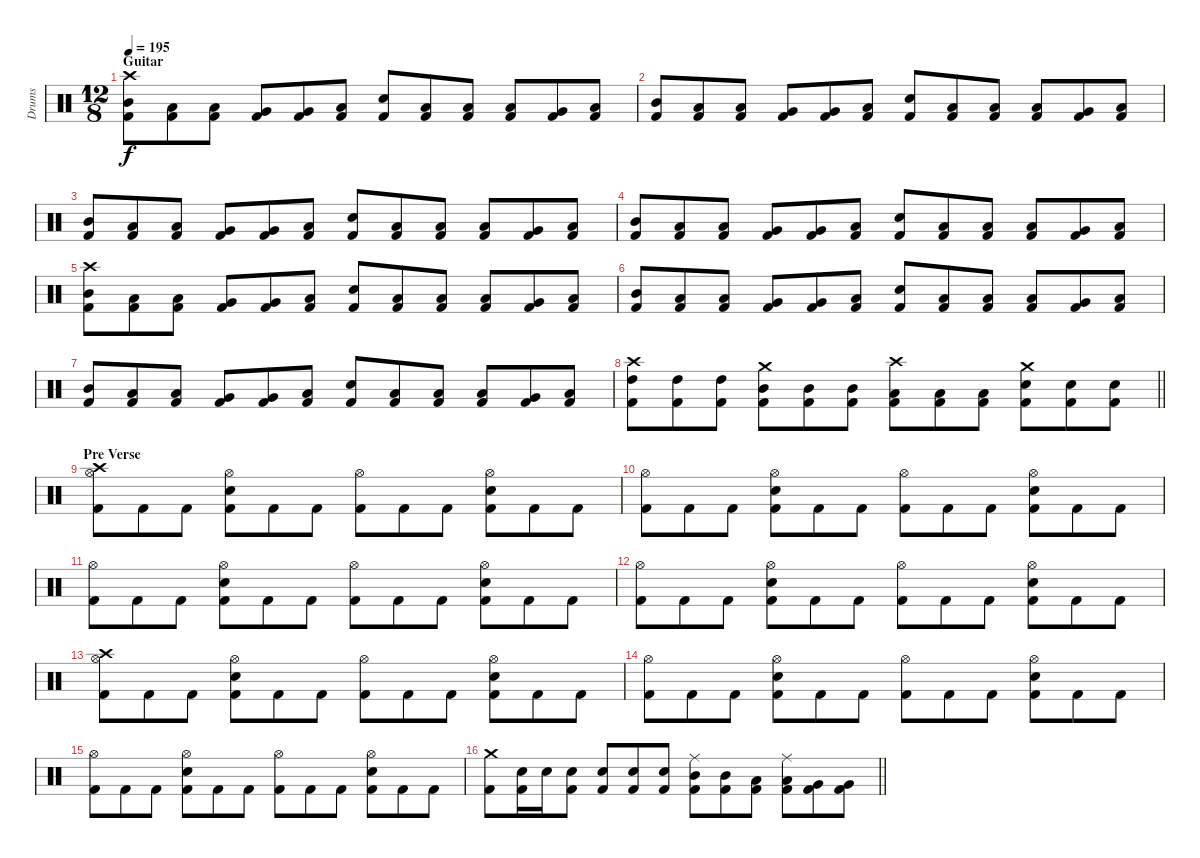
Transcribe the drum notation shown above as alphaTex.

\track ("Drums" "Drums") {instrument percussion}
\staff {score}
\articulation defaults
\ts (12 8)
\section ("" "Guitar")
\tempo 195
\clef neutral
\ks c
("Crash high (hit)" "Mid Tom (hit)" "Kick (hit) 2").8{dy f} ("Low Tom (hit)" "Kick (hit) 2").8 ("Low Tom (hit)" "Kick (hit) 2").8 ("Very Low Tom (hit)" "Kick (hit) 2").8 ("Very Low Tom (hit)" "Kick (hit) 2").8 ("Low Floor Tom (hit)" "Kick (hit) 2").8 ("Snare (hit) 2" "Kick (hit) 2").8 ("Low Floor Tom (hit)" "Kick (hit) 2").8 ("Low Floor Tom (hit)" "Kick (hit) 2").8 ("Low Tom (hit)" "Kick (hit) 2").8 ("Very Low Tom (hit)" "Kick (hit) 2").8 ("Low Floor Tom (hit)" "Kick (hit) 2").8 |
("Mid Tom (hit)" "Kick (hit) 2").8 ("Low Tom (hit)" "Kick (hit) 2").8 ("Low Tom (hit)" "Kick (hit) 2").8 ("Very Low Tom (hit)" "Kick (hit) 2").8 ("Very Low Tom (hit)" "Kick (hit) 2").8 ("Low Floor Tom (hit)" "Kick (hit) 2").8 ("Snare (hit) 2" "Kick (hit) 2").8 ("Low Floor Tom (hit)" "Kick (hit) 2").8 ("Low Floor Tom (hit)" "Kick (hit) 2").8 ("Low Tom (hit)" "Kick (hit) 2").8 ("Very Low Tom (hit)" "Kick (hit) 2").8 ("Low Floor Tom (hit)" "Kick (hit) 2").8 |
("Mid Tom (hit)" "Kick (hit) 2").8 ("Low Tom (hit)" "Kick (hit) 2").8 ("Low Tom (hit)" "Kick (hit) 2").8 ("Very Low Tom (hit)" "Kick (hit) 2").8 ("Very Low Tom (hit)" "Kick (hit) 2").8 ("Low Floor Tom (hit)" "Kick (hit) 2").8 ("Snare (hit) 2" "Kick (hit) 2").8 ("Low Floor Tom (hit)" "Kick (hit) 2").8 ("Low Floor Tom (hit)" "Kick (hit) 2").8 ("Low Tom (hit)" "Kick (hit) 2").8 ("Very Low Tom (hit)" "Kick (hit) 2").8 ("Low Floor Tom (hit)" "Kick (hit) 2").8 |
("Mid Tom (hit)" "Kick (hit) 2").8 ("Low Tom (hit)" "Kick (hit) 2").8 ("Low Tom (hit)" "Kick (hit) 2").8 ("Very Low Tom (hit)" "Kick (hit) 2").8 ("Very Low Tom (hit)" "Kick (hit) 2").8 ("Low Floor Tom (hit)" "Kick (hit) 2").8 ("Snare (hit) 2" "Kick (hit) 2").8 ("Low Floor Tom (hit)" "Kick (hit) 2").8 ("Low Floor Tom (hit)" "Kick (hit) 2").8 ("Low Tom (hit)" "Kick (hit) 2").8 ("Very Low Tom (hit)" "Kick (hit) 2").8 ("Low Floor Tom (hit)" "Kick (hit) 2").8 |
("Crash high (hit)" "Mid Tom (hit)" "Kick (hit) 2").8 ("Low Tom (hit)" "Kick (hit) 2").8 ("Low Tom (hit)" "Kick (hit) 2").8 ("Very Low Tom (hit)" "Kick (hit) 2").8 ("Very Low Tom (hit)" "Kick (hit) 2").8 ("Low Floor Tom (hit)" "Kick (hit) 2").8 ("Snare (hit) 2" "Kick (hit) 2").8 ("Low Floor Tom (hit)" "Kick (hit) 2").8 ("Low Floor Tom (hit)" "Kick (hit) 2").8 ("Low Tom (hit)" "Kick (hit) 2").8 ("Very Low Tom (hit)" "Kick (hit) 2").8 ("Low Floor Tom (hit)" "Kick (hit) 2").8 |
("Mid Tom (hit)" "Kick (hit) 2").8 ("Low Tom (hit)" "Kick (hit) 2").8 ("Low Tom (hit)" "Kick (hit) 2").8 ("Very Low Tom (hit)" "Kick (hit) 2").8 ("Very Low Tom (hit)" "Kick (hit) 2").8 ("Low Floor Tom (hit)" "Kick (hit) 2").8 ("Snare (hit) 2" "Kick (hit) 2").8 ("Low Floor Tom (hit)" "Kick (hit) 2").8 ("Low Floor Tom (hit)" "Kick (hit) 2").8 ("Low Tom (hit)" "Kick (hit) 2").8 ("Very Low Tom (hit)" "Kick (hit) 2").8 ("Low Floor Tom (hit)" "Kick (hit) 2").8 |
("Mid Tom (hit)" "Kick (hit) 2").8 ("Low Tom (hit)" "Kick (hit) 2").8 ("Low Tom (hit)" "Kick (hit) 2").8 ("Very Low Tom (hit)" "Kick (hit) 2").8 ("Very Low Tom (hit)" "Kick (hit) 2").8 ("Low Floor Tom (hit)" "Kick (hit) 2").8 ("Snare (hit) 2" "Kick (hit) 2").8 ("Low Floor Tom (hit)" "Kick (hit) 2").8 ("Low Floor Tom (hit)" "Kick (hit) 2").8 ("Low Tom (hit)" "Kick (hit) 2").8 ("Very Low Tom (hit)" "Kick (hit) 2").8 ("Low Floor Tom (hit)" "Kick (hit) 2").8 |
\barLineRight lightlight
("Crash high (hit)" "High Tom (hit)" "Kick (hit) 2").8 ("High Tom (hit)" "Kick (hit) 2").8 ("High Tom (hit)" "Kick (hit) 2").8 ("Crash medium (hit)" "Mid Tom (hit)" "Kick (hit) 2").8 ("Mid Tom (hit)" "Kick (hit) 2").8 ("Mid Tom (hit)" "Kick (hit) 2").8 ("Crash high (hit)" "Low Tom (hit)" "Kick (hit) 2").8 ("Low Tom (hit)" "Kick (hit) 2").8 ("Low Tom (hit)" "Kick (hit) 2").8 ("Crash medium (hit)" "Snare (hit) 2" "Kick (hit) 2").8 ("Snare (hit) 2" "Kick (hit) 2").8 ("Snare (hit) 2" "Kick (hit) 2").8 |
\section ("" "Pre Verse")
("Crash high (hit)" "Hi-Hat (open)" "Kick (hit) 2").8 "Kick (hit) 2".8 "Kick (hit) 2".8 ("Hi-Hat (open)" "Snare (hit) 2" "Kick (hit) 2").8 "Kick (hit) 2".8 "Kick (hit) 2".8 ("Hi-Hat (open)" "Kick (hit) 2").8 "Kick (hit) 2".8 "Kick (hit) 2".8 ("Hi-Hat (open)" "Snare (hit) 2" "Kick (hit) 2").8 "Kick (hit) 2".8 "Kick (hit) 2".8 |
("Hi-Hat (open)" "Kick (hit) 2").8 "Kick (hit) 2".8 "Kick (hit) 2".8 ("Hi-Hat (open)" "Snare (hit) 2" "Kick (hit) 2").8 "Kick (hit) 2".8 "Kick (hit) 2".8 ("Hi-Hat (open)" "Kick (hit) 2").8 "Kick (hit) 2".8 "Kick (hit) 2".8 ("Hi-Hat (open)" "Snare (hit) 2" "Kick (hit) 2").8 "Kick (hit) 2".8 "Kick (hit) 2".8 |
("Hi-Hat (open)" "Kick (hit) 2").8 "Kick (hit) 2".8 "Kick (hit) 2".8 ("Hi-Hat (open)" "Snare (hit) 2" "Kick (hit) 2").8 "Kick (hit) 2".8 "Kick (hit) 2".8 ("Hi-Hat (open)" "Kick (hit) 2").8 "Kick (hit) 2".8 "Kick (hit) 2".8 ("Hi-Hat (open)" "Snare (hit) 2" "Kick (hit) 2").8 "Kick (hit) 2".8 "Kick (hit) 2".8 |
("Hi-Hat (open)" "Kick (hit) 2").8 "Kick (hit) 2".8 "Kick (hit) 2".8 ("Hi-Hat (open)" "Snare (hit) 2" "Kick (hit) 2").8 "Kick (hit) 2".8 "Kick (hit) 2".8 ("Hi-Hat (open)" "Kick (hit) 2").8 "Kick (hit) 2".8 "Kick (hit) 2".8 ("Hi-Hat (open)" "Snare (hit) 2" "Kick (hit) 2").8 "Kick (hit) 2".8 "Kick (hit) 2".8 |
("Crash high (hit)" "Hi-Hat (open)" "Kick (hit) 2").8 "Kick (hit) 2".8 "Kick (hit) 2".8 ("Hi-Hat (open)" "Snare (hit) 2" "Kick (hit) 2").8 "Kick (hit) 2".8 "Kick (hit) 2".8 ("Hi-Hat (open)" "Kick (hit) 2").8 "Kick (hit) 2".8 "Kick (hit) 2".8 ("Hi-Hat (open)" "Snare (hit) 2" "Kick (hit) 2").8 "Kick (hit) 2".8 "Kick (hit) 2".8 |
("Hi-Hat (open)" "Kick (hit) 2").8 "Kick (hit) 2".8 "Kick (hit) 2".8 ("Hi-Hat (open)" "Snare (hit) 2" "Kick (hit) 2").8 "Kick (hit) 2".8 "Kick (hit) 2".8 ("Hi-Hat (open)" "Kick (hit) 2").8 "Kick (hit) 2".8 "Kick (hit) 2".8 ("Hi-Hat (open)" "Snare (hit) 2" "Kick (hit) 2").8 "Kick (hit) 2".8 "Kick (hit) 2".8 |
("Hi-Hat (open)" "Kick (hit) 2").8 "Kick (hit) 2".8 "Kick (hit) 2".8 ("Hi-Hat (open)" "Snare (hit) 2" "Kick (hit) 2").8 "Kick (hit) 2".8 "Kick (hit) 2".8 ("Hi-Hat (open)" "Kick (hit) 2").8 "Kick (hit) 2".8 "Kick (hit) 2".8 ("Hi-Hat (open)" "Snare (hit) 2" "Kick (hit) 2").8 "Kick (hit) 2".8 "Kick (hit) 2".8 |
\barLineRight lightlight
("Crash medium (hit)" "Kick (hit) 2").8 ("Snare (hit) 2" "Kick (hit) 2").16 "Snare (hit) 2".16 ("Snare (hit) 2" "Kick (hit) 2").8 ("Snare (hit) 2" "Kick (hit) 2").8 ("Snare (hit) 2" "Kick (hit) 2").8 ("Snare (hit) 2" "Kick (hit) 2").8 ("Ride (middle)" "Mid Tom (hit)" "Kick (hit) 2").8 ("Mid Tom (hit)" "Kick (hit) 2").8 ("Low Tom (hit)" "Kick (hit) 2").8 ("Ride (middle)" "Low Tom (hit)" "Kick (hit) 2").8 ("Very Low Tom (hit)" "Kick (hit) 2").8 ("Very Low Tom (hit)" "Kick (hit) 2").8
